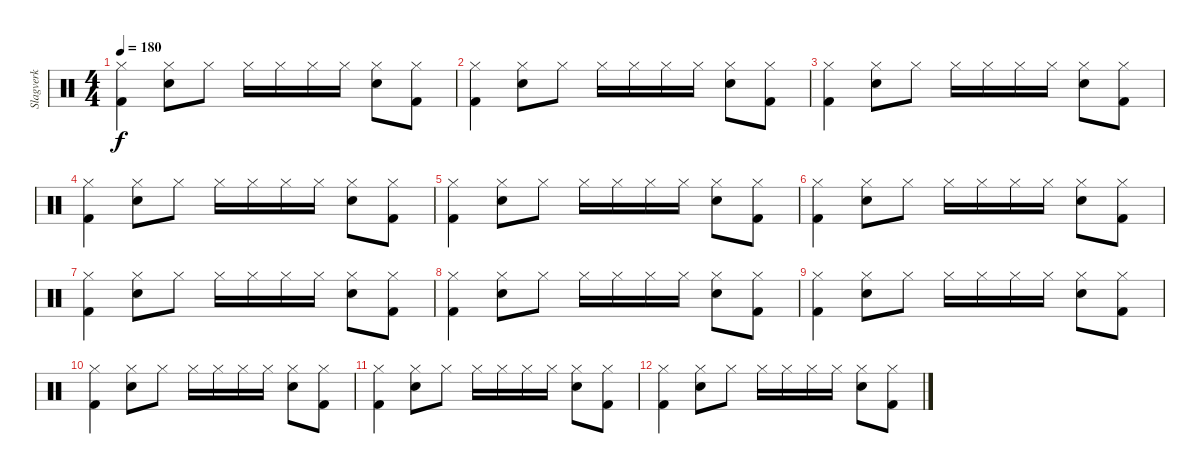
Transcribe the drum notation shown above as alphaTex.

\track ("Slagverk" "Slagverk") {instrument percussion}
\staff {score}
\articulation defaults
\ts (4 4)
\tempo 180
\clef neutral
\ks c
("Hi-Hat (closed)" "Kick (hit) 2").4{dy f} ("Hi-Hat (closed)" "Snare (hit) 2").8 "Hi-Hat (closed)".8 "Hi-Hat (closed)".16 "Hi-Hat (closed)".16 "Hi-Hat (closed)".16 "Hi-Hat (closed)".16 ("Hi-Hat (closed)" "Snare (hit) 2").8 ("Hi-Hat (closed)" "Kick (hit) 2").8 |
("Hi-Hat (closed)" "Kick (hit) 2").4 ("Hi-Hat (closed)" "Snare (hit) 2").8 "Hi-Hat (closed)".8 "Hi-Hat (closed)".16 "Hi-Hat (closed)".16 "Hi-Hat (closed)".16 "Hi-Hat (closed)".16 ("Hi-Hat (closed)" "Snare (hit) 2").8 ("Hi-Hat (closed)" "Kick (hit) 2").8 |
("Hi-Hat (closed)" "Kick (hit) 2").4 ("Hi-Hat (closed)" "Snare (hit) 2").8 "Hi-Hat (closed)".8 "Hi-Hat (closed)".16 "Hi-Hat (closed)".16 "Hi-Hat (closed)".16 "Hi-Hat (closed)".16 ("Hi-Hat (closed)" "Snare (hit) 2").8 ("Hi-Hat (closed)" "Kick (hit) 2").8 |
("Hi-Hat (closed)" "Kick (hit) 2").4 ("Hi-Hat (closed)" "Snare (hit) 2").8 "Hi-Hat (closed)".8 "Hi-Hat (closed)".16 "Hi-Hat (closed)".16 "Hi-Hat (closed)".16 "Hi-Hat (closed)".16 ("Hi-Hat (closed)" "Snare (hit) 2").8 ("Hi-Hat (closed)" "Kick (hit) 2").8 |
("Hi-Hat (closed)" "Kick (hit) 2").4 ("Hi-Hat (closed)" "Snare (hit) 2").8 "Hi-Hat (closed)".8 "Hi-Hat (closed)".16 "Hi-Hat (closed)".16 "Hi-Hat (closed)".16 "Hi-Hat (closed)".16 ("Hi-Hat (closed)" "Snare (hit) 2").8 ("Hi-Hat (closed)" "Kick (hit) 2").8 |
("Hi-Hat (closed)" "Kick (hit) 2").4 ("Hi-Hat (closed)" "Snare (hit) 2").8 "Hi-Hat (closed)".8 "Hi-Hat (closed)".16 "Hi-Hat (closed)".16 "Hi-Hat (closed)".16 "Hi-Hat (closed)".16 ("Hi-Hat (closed)" "Snare (hit) 2").8 ("Hi-Hat (closed)" "Kick (hit) 2").8 |
("Hi-Hat (closed)" "Kick (hit) 2").4 ("Hi-Hat (closed)" "Snare (hit) 2").8 "Hi-Hat (closed)".8 "Hi-Hat (closed)".16 "Hi-Hat (closed)".16 "Hi-Hat (closed)".16 "Hi-Hat (closed)".16 ("Hi-Hat (closed)" "Snare (hit) 2").8 ("Hi-Hat (closed)" "Kick (hit) 2").8 |
("Hi-Hat (closed)" "Kick (hit) 2").4 ("Hi-Hat (closed)" "Snare (hit) 2").8 "Hi-Hat (closed)".8 "Hi-Hat (closed)".16 "Hi-Hat (closed)".16 "Hi-Hat (closed)".16 "Hi-Hat (closed)".16 ("Hi-Hat (closed)" "Snare (hit) 2").8 ("Hi-Hat (closed)" "Kick (hit) 2").8 |
("Hi-Hat (closed)" "Kick (hit) 2").4 ("Hi-Hat (closed)" "Snare (hit) 2").8 "Hi-Hat (closed)".8 "Hi-Hat (closed)".16 "Hi-Hat (closed)".16 "Hi-Hat (closed)".16 "Hi-Hat (closed)".16 ("Hi-Hat (closed)" "Snare (hit) 2").8 ("Hi-Hat (closed)" "Kick (hit) 2").8 |
("Hi-Hat (closed)" "Kick (hit) 2").4 ("Hi-Hat (closed)" "Snare (hit) 2").8 "Hi-Hat (closed)".8 "Hi-Hat (closed)".16 "Hi-Hat (closed)".16 "Hi-Hat (closed)".16 "Hi-Hat (closed)".16 ("Hi-Hat (closed)" "Snare (hit) 2").8 ("Hi-Hat (closed)" "Kick (hit) 2").8 |
("Hi-Hat (closed)" "Kick (hit) 2").4 ("Hi-Hat (closed)" "Snare (hit) 2").8 "Hi-Hat (closed)".8 "Hi-Hat (closed)".16 "Hi-Hat (closed)".16 "Hi-Hat (closed)".16 "Hi-Hat (closed)".16 ("Hi-Hat (closed)" "Snare (hit) 2").8 ("Hi-Hat (closed)" "Kick (hit) 2").8 |
("Hi-Hat (closed)" "Kick (hit) 2").4 ("Hi-Hat (closed)" "Snare (hit) 2").8 "Hi-Hat (closed)".8 "Hi-Hat (closed)".16 "Hi-Hat (closed)".16 "Hi-Hat (closed)".16 "Hi-Hat (closed)".16 ("Hi-Hat (closed)" "Snare (hit) 2").8 ("Hi-Hat (closed)" "Kick (hit) 2").8
